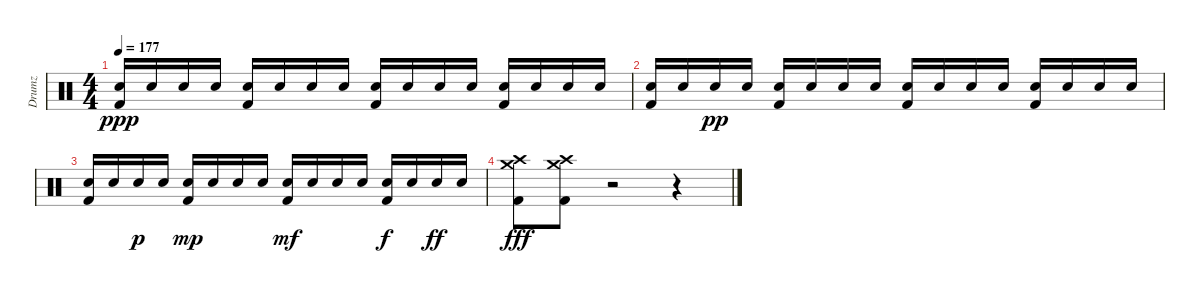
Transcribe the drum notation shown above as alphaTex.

\track ("Drumz" "Drumz") {instrument percussion}
\staff {score}
\articulation defaults
\ts (4 4)
\tempo 177
\clef neutral
\ks c
("Kick (hit) 2" "Snare (hit) 2").16{dy ppp} "Snare (hit) 2".16 "Snare (hit) 2".16 "Snare (hit) 2".16 ("Kick (hit) 2" "Snare (hit) 2").16 "Snare (hit) 2".16 "Snare (hit) 2".16 "Snare (hit) 2".16 ("Kick (hit) 2" "Snare (hit) 2").16 "Snare (hit) 2".16 "Snare (hit) 2".16 "Snare (hit) 2".16 ("Kick (hit) 2" "Snare (hit) 2").16 "Snare (hit) 2".16 "Snare (hit) 2".16 "Snare (hit) 2".16 |
("Kick (hit) 2" "Snare (hit) 2").16 "Snare (hit) 2".16 "Snare (hit) 2".16{dy pp} "Snare (hit) 2".16 ("Kick (hit) 2" "Snare (hit) 2").16 "Snare (hit) 2".16 "Snare (hit) 2".16 "Snare (hit) 2".16 ("Kick (hit) 2" "Snare (hit) 2").16 "Snare (hit) 2".16 "Snare (hit) 2".16 "Snare (hit) 2".16 ("Kick (hit) 2" "Snare (hit) 2").16 "Snare (hit) 2".16 "Snare (hit) 2".16 "Snare (hit) 2".16 |
("Kick (hit) 2" "Snare (hit) 2").16 "Snare (hit) 2".16 "Snare (hit) 2".16{dy p} "Snare (hit) 2".16 ("Kick (hit) 2" "Snare (hit) 2").16{dy mp} "Snare (hit) 2".16 "Snare (hit) 2".16 "Snare (hit) 2".16 ("Kick (hit) 2" "Snare (hit) 2").16{dy mf} "Snare (hit) 2".16 "Snare (hit) 2".16 "Snare (hit) 2".16 ("Kick (hit) 2" "Snare (hit) 2").16{dy f} "Snare (hit) 2".16 "Snare (hit) 2".16{dy ff} "Snare (hit) 2".16 |
("Crash medium (hit)" "Kick (hit) 2" "Crash high (hit)").8{dy fff} ("Crash high (hit)" "Crash medium (hit)" "Kick (hit) 2").8 r.2 r.4
